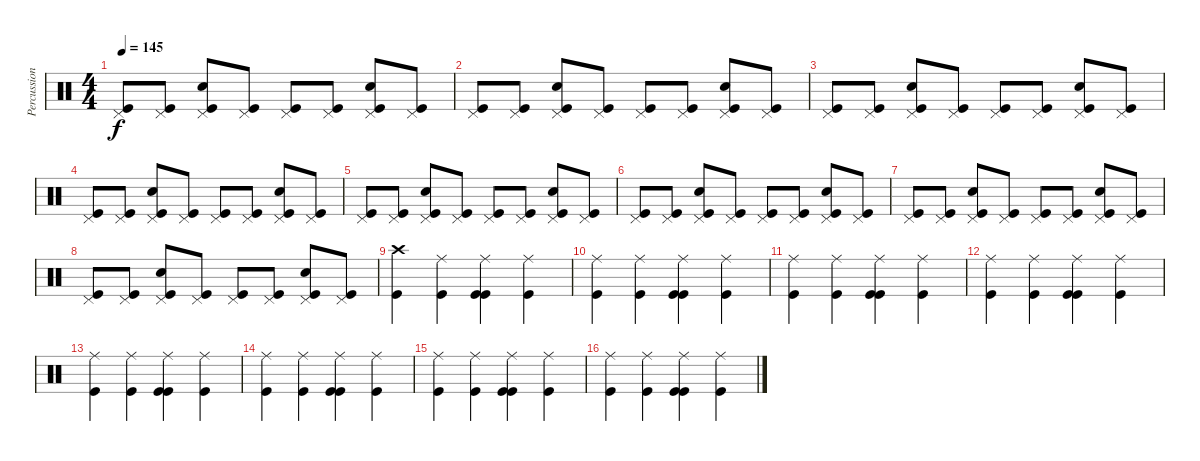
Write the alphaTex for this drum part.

\track ("Percussion" "Percussion") {instrument percussion}
\staff {score}
\articulation defaults
\ts (4 4)
\tempo 145
\clef neutral
\ks c
("Pedal Hi-Hat (hit)" "Kick (hit)").8{dy f} ("Pedal Hi-Hat (hit)" "Kick (hit)").8 ("Pedal Hi-Hat (hit)" "Snare (hit) 2" "Kick (hit)").8 ("Pedal Hi-Hat (hit)" "Kick (hit)").8 ("Pedal Hi-Hat (hit)" "Kick (hit)").8 ("Pedal Hi-Hat (hit)" "Kick (hit)").8 ("Pedal Hi-Hat (hit)" "Snare (hit) 2" "Kick (hit)").8 ("Pedal Hi-Hat (hit)" "Kick (hit)").8 |
("Pedal Hi-Hat (hit)" "Kick (hit)").8 ("Pedal Hi-Hat (hit)" "Kick (hit)").8 ("Pedal Hi-Hat (hit)" "Snare (hit) 2" "Kick (hit)").8 ("Pedal Hi-Hat (hit)" "Kick (hit)").8 ("Pedal Hi-Hat (hit)" "Kick (hit)").8 ("Pedal Hi-Hat (hit)" "Kick (hit)").8 ("Pedal Hi-Hat (hit)" "Snare (hit) 2" "Kick (hit)").8 ("Pedal Hi-Hat (hit)" "Kick (hit)").8 |
("Pedal Hi-Hat (hit)" "Kick (hit)").8 ("Pedal Hi-Hat (hit)" "Kick (hit)").8 ("Pedal Hi-Hat (hit)" "Snare (hit) 2" "Kick (hit)").8 ("Pedal Hi-Hat (hit)" "Kick (hit)").8 ("Pedal Hi-Hat (hit)" "Kick (hit)").8 ("Pedal Hi-Hat (hit)" "Kick (hit)").8 ("Pedal Hi-Hat (hit)" "Snare (hit) 2" "Kick (hit)").8 ("Pedal Hi-Hat (hit)" "Kick (hit)").8 |
("Pedal Hi-Hat (hit)" "Kick (hit)").8 ("Pedal Hi-Hat (hit)" "Kick (hit)").8 ("Pedal Hi-Hat (hit)" "Snare (hit) 2" "Kick (hit)").8 ("Pedal Hi-Hat (hit)" "Kick (hit)").8 ("Pedal Hi-Hat (hit)" "Kick (hit)").8 ("Pedal Hi-Hat (hit)" "Kick (hit)").8 ("Pedal Hi-Hat (hit)" "Snare (hit) 2" "Kick (hit)").8 ("Pedal Hi-Hat (hit)" "Kick (hit)").8 |
("Pedal Hi-Hat (hit)" "Kick (hit)").8 ("Pedal Hi-Hat (hit)" "Kick (hit)").8 ("Pedal Hi-Hat (hit)" "Snare (hit) 2" "Kick (hit)").8 ("Pedal Hi-Hat (hit)" "Kick (hit)").8 ("Pedal Hi-Hat (hit)" "Kick (hit)").8 ("Pedal Hi-Hat (hit)" "Kick (hit)").8 ("Pedal Hi-Hat (hit)" "Snare (hit) 2" "Kick (hit)").8 ("Pedal Hi-Hat (hit)" "Kick (hit)").8 |
("Pedal Hi-Hat (hit)" "Kick (hit)").8 ("Pedal Hi-Hat (hit)" "Kick (hit)").8 ("Pedal Hi-Hat (hit)" "Snare (hit) 2" "Kick (hit)").8 ("Pedal Hi-Hat (hit)" "Kick (hit)").8 ("Pedal Hi-Hat (hit)" "Kick (hit)").8 ("Pedal Hi-Hat (hit)" "Kick (hit)").8 ("Pedal Hi-Hat (hit)" "Snare (hit) 2" "Kick (hit)").8 ("Pedal Hi-Hat (hit)" "Kick (hit)").8 |
("Pedal Hi-Hat (hit)" "Kick (hit)").8 ("Pedal Hi-Hat (hit)" "Kick (hit)").8 ("Pedal Hi-Hat (hit)" "Snare (hit) 2" "Kick (hit)").8 ("Pedal Hi-Hat (hit)" "Kick (hit)").8 ("Pedal Hi-Hat (hit)" "Kick (hit)").8 ("Pedal Hi-Hat (hit)" "Kick (hit)").8 ("Pedal Hi-Hat (hit)" "Snare (hit) 2" "Kick (hit)").8 ("Pedal Hi-Hat (hit)" "Kick (hit)").8 |
("Pedal Hi-Hat (hit)" "Kick (hit)").8 ("Pedal Hi-Hat (hit)" "Kick (hit)").8 ("Pedal Hi-Hat (hit)" "Snare (hit) 2" "Kick (hit)").8 ("Pedal Hi-Hat (hit)" "Kick (hit)").8 ("Pedal Hi-Hat (hit)" "Kick (hit)").8 ("Pedal Hi-Hat (hit)" "Kick (hit)").8 ("Pedal Hi-Hat (hit)" "Snare (hit) 2" "Kick (hit)").8 ("Pedal Hi-Hat (hit)" "Kick (hit)").8 |
("Crash high (hit)" "Kick (hit)").4 ("Ride (middle)" "Kick (hit)").4 ("Ride (middle)" "Kick (hit)" "Kick (hit)").4 ("Ride (middle)" "Kick (hit)").4 |
("Ride (middle)" "Kick (hit)").4 ("Ride (middle)" "Kick (hit)").4 ("Ride (middle)" "Kick (hit)" "Kick (hit)").4 ("Ride (middle)" "Kick (hit)").4 |
("Ride (middle)" "Kick (hit)").4 ("Ride (middle)" "Kick (hit)").4 ("Ride (middle)" "Kick (hit)" "Kick (hit)").4 ("Ride (middle)" "Kick (hit)").4 |
("Ride (middle)" "Kick (hit)").4 ("Ride (middle)" "Kick (hit)").4 ("Ride (middle)" "Kick (hit)" "Kick (hit)").4 ("Ride (middle)" "Kick (hit)").4 |
("Ride (middle)" "Kick (hit)").4 ("Ride (middle)" "Kick (hit)").4 ("Ride (middle)" "Kick (hit)" "Kick (hit)").4 ("Ride (middle)" "Kick (hit)").4 |
("Ride (middle)" "Kick (hit)").4 ("Ride (middle)" "Kick (hit)").4 ("Ride (middle)" "Kick (hit)" "Kick (hit)").4 ("Ride (middle)" "Kick (hit)").4 |
("Ride (middle)" "Kick (hit)").4 ("Ride (middle)" "Kick (hit)").4 ("Ride (middle)" "Kick (hit)" "Kick (hit)").4 ("Ride (middle)" "Kick (hit)").4 |
("Ride (middle)" "Kick (hit)").4 ("Ride (middle)" "Kick (hit)").4 ("Ride (middle)" "Kick (hit)" "Kick (hit)").4 ("Ride (middle)" "Kick (hit)").4
